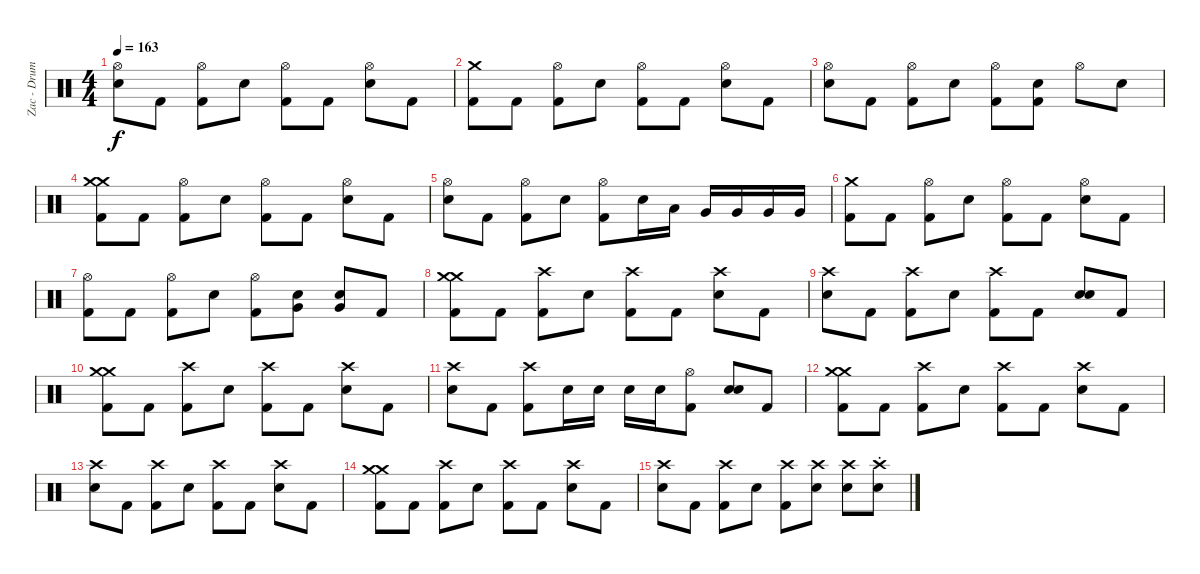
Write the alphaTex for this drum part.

\track ("Zac - Drums" "Zac - Drum") {instrument percussion}
\staff {score}
\articulation defaults
\ts (4 4)
\tempo 163
\clef neutral
\ks c
("Hi-Hat (open)" "Snare (hit) 2").8{dy f} "Kick (hit) 2".8 ("Hi-Hat (open)" "Kick (hit) 2").8 "Snare (hit) 2".8 ("Hi-Hat (open)" "Kick (hit) 2").8 "Kick (hit) 2".8 ("Hi-Hat (open)" "Snare (hit) 2").8 "Kick (hit) 2".8 |
("Crash medium (hit)" "Kick (hit) 2").8 "Kick (hit) 2".8 ("Hi-Hat (open)" "Kick (hit) 2").8 "Snare (hit) 2".8 ("Hi-Hat (open)" "Kick (hit) 2").8 "Kick (hit) 2".8 ("Hi-Hat (open)" "Snare (hit) 2").8 "Kick (hit) 2".8 |
("Hi-Hat (open)" "Snare (hit) 2").8 "Kick (hit) 2".8 ("Hi-Hat (open)" "Kick (hit) 2").8 "Snare (hit) 2".8 ("Hi-Hat (open)" "Kick (hit) 2").8 ("Snare (hit) 2" "Kick (hit) 2").8 "Hi-Hat (open)".8 "Snare (hit) 2".8 |
("Crash medium (hit)" "Crash medium (hit)" "Kick (hit) 2").8 "Kick (hit) 2".8 ("Hi-Hat (open)" "Kick (hit) 2").8 "Snare (hit) 2".8 ("Hi-Hat (open)" "Kick (hit) 2").8 "Kick (hit) 2".8 ("Hi-Hat (open)" "Snare (hit) 2").8 "Kick (hit) 2".8 |
("Hi-Hat (open)" "Snare (hit) 2").8 "Kick (hit) 2".8 ("Hi-Hat (open)" "Kick (hit) 2").8 "Snare (hit) 2".8 ("Hi-Hat (open)" "Kick (hit) 2").8 "Snare (hit) 2".16 "Low Tom (hit)".16 "Very Low Tom (hit)".16 "Very Low Tom (hit)".16 "Very Low Tom (hit)".16 "Very Low Tom (hit)".16 |
("Crash medium (hit)" "Kick (hit) 2").8 "Kick (hit) 2".8 ("Hi-Hat (open)" "Kick (hit) 2").8 "Snare (hit) 2".8 ("Hi-Hat (open)" "Kick (hit) 2").8 "Kick (hit) 2".8 ("Hi-Hat (open)" "Snare (hit) 2").8 "Kick (hit) 2".8 |
("Hi-Hat (open)" "Kick (hit) 2").8 "Kick (hit) 2".8 ("Hi-Hat (open)" "Kick (hit) 2").8 "Snare (hit) 2".8 ("Hi-Hat (open)" "Kick (hit) 2").8 ("Snare (hit) 2" "Very Low Tom (hit)").8 ("Snare (hit) 2" "Very Low Tom (hit)").8 "Kick (hit) 2".8 |
("Crash medium (hit)" "Crash medium (hit)" "Kick (hit) 2").8 "Kick (hit) 2".8 ("Crash high (hit)" "Kick (hit) 2").8 "Snare (hit) 2".8 ("Crash high (hit)" "Kick (hit) 2").8 "Kick (hit) 2".8 ("Crash high (hit)" "Snare (hit) 2").8 "Kick (hit) 2".8 |
("Crash high (hit)" "Snare (hit) 2").8 "Kick (hit) 2".8 ("Crash high (hit)" "Kick (hit) 2").8 "Snare (hit) 2".8 ("Crash high (hit)" "Kick (hit) 2").8 "Kick (hit) 2".8 ("Snare (hit) 2" "Snare (hit) 2").8 "Kick (hit) 2".8 |
("Crash medium (hit)" "Crash medium (hit)" "Kick (hit) 2").8 "Kick (hit) 2".8 ("Crash high (hit)" "Kick (hit) 2").8 "Snare (hit) 2".8 ("Crash high (hit)" "Kick (hit) 2").8 "Kick (hit) 2".8 ("Crash high (hit)" "Snare (hit) 2").8 "Kick (hit) 2".8 |
("Crash high (hit)" "Snare (hit) 2").8 "Kick (hit) 2".8 ("Crash high (hit)" "Kick (hit) 2").8 "Snare (hit) 2".16 "Snare (hit) 2".16 "Snare (hit) 2".16 "Snare (hit) 2".16 ("Hi-Hat (open)" "Kick (hit) 2").8 ("Snare (hit) 2" "Snare (hit) 2").8 "Kick (hit) 2".8 |
("Crash medium (hit)" "Crash medium (hit)" "Kick (hit) 2").8 "Kick (hit) 2".8 ("Crash high (hit)" "Kick (hit) 2").8 "Snare (hit) 2".8 ("Crash high (hit)" "Kick (hit) 2").8 "Kick (hit) 2".8 ("Crash high (hit)" "Snare (hit) 2").8 "Kick (hit) 2".8 |
("Crash high (hit)" "Snare (hit) 2").8 "Kick (hit) 2".8 ("Crash high (hit)" "Kick (hit) 2").8 "Snare (hit) 2".8 ("Crash high (hit)" "Kick (hit) 2").8 "Kick (hit) 2".8 ("Crash high (hit)" "Snare (hit) 2").8 "Kick (hit) 2".8 |
("Crash medium (hit)" "Crash medium (hit)" "Kick (hit) 2").8 "Kick (hit) 2".8 ("Crash high (hit)" "Kick (hit) 2").8 "Snare (hit) 2".8 ("Crash high (hit)" "Kick (hit) 2").8 "Kick (hit) 2".8 ("Crash high (hit)" "Snare (hit) 2").8 "Kick (hit) 2".8 |
("Crash high (hit)" "Snare (hit) 2").8 "Kick (hit) 2".8 ("Crash high (hit)" "Kick (hit) 2").8 "Snare (hit) 2".8 ("Crash high (hit)" "Kick (hit) 2").8 ("Crash high (hit)" "Snare (hit) 2").8 ("Crash high (hit)" "Snare (hit) 2").8 ("Crash high (hit)"{st} "Snare (hit) 2"{st}).8
